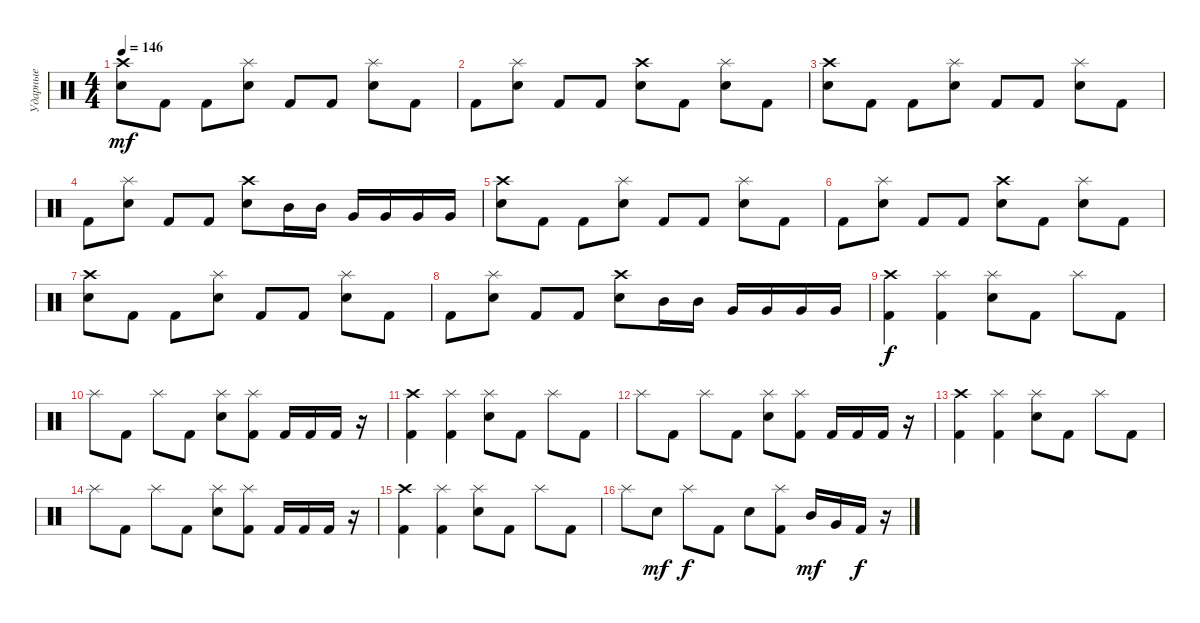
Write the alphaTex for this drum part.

\track ("Ударные" "Ударные") {instrument percussion}
\staff {score}
\articulation defaults
\ts (4 4)
\tempo 146
\clef neutral
\ks c
("Crash high (hit)" "Snare (hit) 2").8{dy mf} "Kick (hit) 2".8 "Kick (hit) 2".8 ("Splash (hit)" "Snare (hit) 2").8 "Kick (hit) 2".8 "Kick (hit) 2".8 ("Splash (hit)" "Snare (hit) 2").8 "Kick (hit) 2".8 |
"Kick (hit) 2".8 ("Splash (hit)" "Snare (hit) 2").8 "Kick (hit) 2".8 "Kick (hit) 2".8 ("Crash high (hit)" "Snare (hit) 2").8 "Kick (hit) 2".8 ("Splash (hit)" "Snare (hit) 2").8 "Kick (hit) 2".8 |
("Crash high (hit)" "Snare (hit) 2").8 "Kick (hit) 2".8 "Kick (hit) 2".8 ("Splash (hit)" "Snare (hit) 2").8 "Kick (hit) 2".8 "Kick (hit) 2".8 ("Splash (hit)" "Snare (hit) 2").8 "Kick (hit) 2".8 |
"Kick (hit) 2".8 ("Splash (hit)" "Snare (hit) 2").8 "Kick (hit) 2".8 "Kick (hit) 2".8 ("Crash high (hit)" "Snare (hit) 2").8 "Mid Tom (hit)".16 "Mid Tom (hit)".16 "Very Low Tom (hit)".16 "Very Low Tom (hit)".16 "Very Low Tom (hit)".16 "Very Low Tom (hit)".16 |
("Crash high (hit)" "Snare (hit) 2").8 "Kick (hit) 2".8 "Kick (hit) 2".8 ("Splash (hit)" "Snare (hit) 2").8 "Kick (hit) 2".8 "Kick (hit) 2".8 ("Splash (hit)" "Snare (hit) 2").8 "Kick (hit) 2".8 |
"Kick (hit) 2".8 ("Splash (hit)" "Snare (hit) 2").8 "Kick (hit) 2".8 "Kick (hit) 2".8 ("Crash high (hit)" "Snare (hit) 2").8 "Kick (hit) 2".8 ("Splash (hit)" "Snare (hit) 2").8 "Kick (hit) 2".8 |
("Crash high (hit)" "Snare (hit) 2").8 "Kick (hit) 2".8 "Kick (hit) 2".8 ("Splash (hit)" "Snare (hit) 2").8 "Kick (hit) 2".8 "Kick (hit) 2".8 ("Splash (hit)" "Snare (hit) 2").8 "Kick (hit) 2".8 |
"Kick (hit) 2".8 ("Splash (hit)" "Snare (hit) 2").8 "Kick (hit) 2".8 "Kick (hit) 2".8 ("Crash high (hit)" "Snare (hit) 2").8 "Mid Tom (hit)".16 "Mid Tom (hit)".16 "Very Low Tom (hit)".16 "Very Low Tom (hit)".16 "Very Low Tom (hit)".16 "Very Low Tom (hit)".16 |
("Crash high (hit)" "Kick (hit) 2").4{dy f} ("Splash (hit)" "Kick (hit) 2").4 ("Splash (hit)" "Snare (hit) 2").8 "Kick (hit) 2".8 "Splash (hit)".8 "Kick (hit) 2".8 |
"Splash (hit)".8 "Kick (hit) 2".8 "Splash (hit)".8 "Kick (hit) 2".8 ("Splash (hit)" "Snare (hit) 2").8 ("Splash (hit)" "Kick (hit) 2").8 "Kick (hit) 2".16 "Kick (hit) 2".16 "Kick (hit) 2".16 r.16 |
("Crash high (hit)" "Kick (hit) 2").4 ("Splash (hit)" "Kick (hit) 2").4 ("Splash (hit)" "Snare (hit) 2").8 "Kick (hit) 2".8 "Splash (hit)".8 "Kick (hit) 2".8 |
"Splash (hit)".8 "Kick (hit) 2".8 "Splash (hit)".8 "Kick (hit) 2".8 ("Splash (hit)" "Snare (hit) 2").8 ("Splash (hit)" "Kick (hit) 2").8 "Kick (hit) 2".16 "Kick (hit) 2".16 "Kick (hit) 2".16 r.16 |
("Crash high (hit)" "Kick (hit) 2").4 ("Splash (hit)" "Kick (hit) 2").4 ("Splash (hit)" "Snare (hit) 2").8 "Kick (hit) 2".8 "Splash (hit)".8 "Kick (hit) 2".8 |
"Splash (hit)".8 "Kick (hit) 2".8 "Splash (hit)".8 "Kick (hit) 2".8 ("Splash (hit)" "Snare (hit) 2").8 ("Splash (hit)" "Kick (hit) 2").8 "Kick (hit) 2".16 "Kick (hit) 2".16 "Kick (hit) 2".16 r.16 |
("Crash high (hit)" "Kick (hit) 2").4 ("Splash (hit)" "Kick (hit) 2").4 ("Splash (hit)" "Snare (hit) 2").8 "Kick (hit) 2".8 "Splash (hit)".8 "Kick (hit) 2".8 |
"Splash (hit)".8 "Snare (hit) 2".8{dy mf} "Splash (hit)".8{dy f} "Kick (hit) 2".8 "Snare (hit) 2".8 ("Splash (hit)" "Kick (hit) 2").8 "Mid Tom (hit)".16{dy mf} "Very Low Tom (hit)".16 "Kick (hit) 2".16{dy f} r.16
